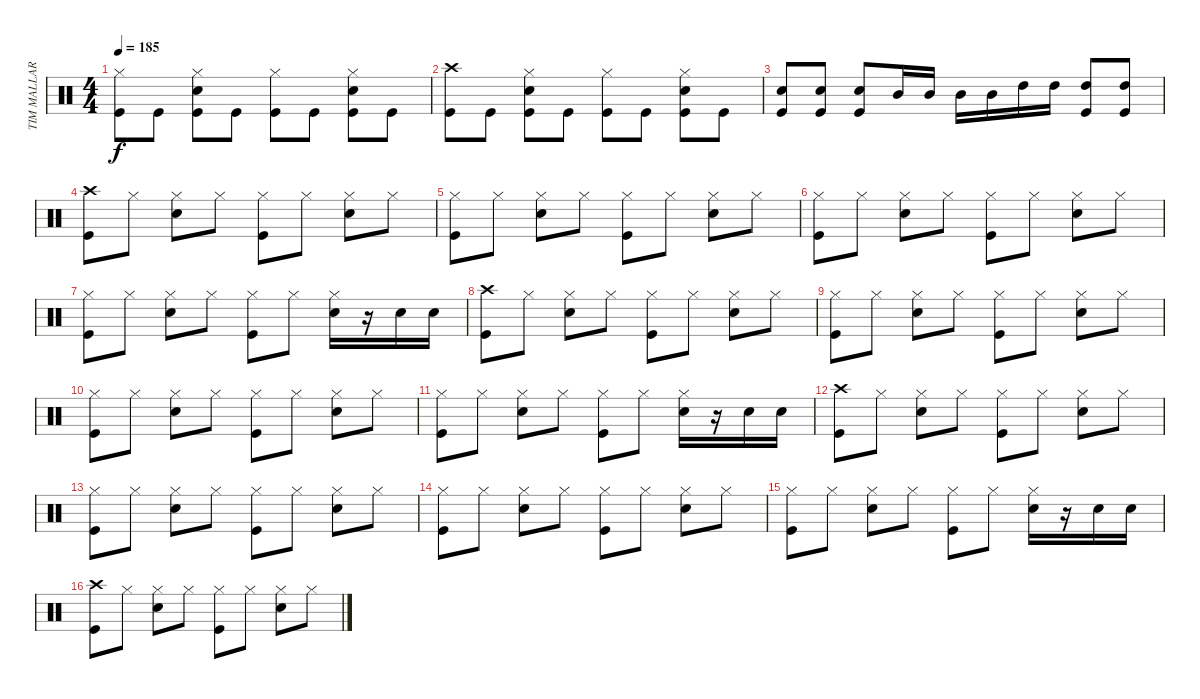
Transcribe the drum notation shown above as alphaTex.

\track ("TIM MALLARE - drums" "TIM MALLAR") {instrument percussion}
\staff {score}
\articulation defaults
\ts (4 4)
\tempo 185
\clef neutral
\ks c
("Hi-Hat (closed)" "Kick (hit)").8{dy f} "Kick (hit)".8 ("Hi-Hat (closed)" "Electric Snare (hit)" "Kick (hit)").8 "Kick (hit)".8 ("Hi-Hat (closed)" "Kick (hit)").8 "Kick (hit)".8 ("Hi-Hat (closed)" "Electric Snare (hit)" "Kick (hit)").8 "Kick (hit)".8 |
("Crash high (hit)" "Kick (hit)").8 "Kick (hit)".8 ("Hi-Hat (closed)" "Electric Snare (hit)" "Kick (hit)").8 "Kick (hit)".8 ("Hi-Hat (closed)" "Kick (hit)").8 "Kick (hit)".8 ("Hi-Hat (closed)" "Electric Snare (hit)" "Kick (hit)").8 "Kick (hit)".8 |
("Electric Snare (hit)" "Kick (hit)").8 ("Electric Snare (hit)" "Kick (hit)").8 ("Electric Snare (hit)" "Kick (hit)").8 "Mid Tom (hit)".16 "Mid Tom (hit)".16 "Mid Tom (hit)".16 "Mid Tom (hit)".16 "High Tom (hit)".16 "High Tom (hit)".16 ("High Tom (hit)" "Kick (hit)").8 ("High Tom (hit)" "Kick (hit)").8 |
("Crash high (hit)" "Kick (hit)").8 "Hi-Hat (closed)".8 ("Hi-Hat (closed)" "Electric Snare (hit)").8 "Hi-Hat (closed)".8 ("Hi-Hat (closed)" "Kick (hit)").8 "Hi-Hat (closed)".8 ("Hi-Hat (closed)" "Electric Snare (hit)").8 "Hi-Hat (closed)".8 |
("Hi-Hat (closed)" "Kick (hit)").8 "Hi-Hat (closed)".8 ("Hi-Hat (closed)" "Electric Snare (hit)").8 "Hi-Hat (closed)".8 ("Hi-Hat (closed)" "Kick (hit)").8 "Hi-Hat (closed)".8 ("Hi-Hat (closed)" "Electric Snare (hit)").8 "Hi-Hat (closed)".8 |
("Hi-Hat (closed)" "Kick (hit)").8 "Hi-Hat (closed)".8 ("Hi-Hat (closed)" "Electric Snare (hit)").8 "Hi-Hat (closed)".8 ("Hi-Hat (closed)" "Kick (hit)").8 "Hi-Hat (closed)".8 ("Hi-Hat (closed)" "Electric Snare (hit)").8 "Hi-Hat (closed)".8 |
("Hi-Hat (closed)" "Kick (hit)").8 "Hi-Hat (closed)".8 ("Hi-Hat (closed)" "Electric Snare (hit)").8 "Hi-Hat (closed)".8 ("Hi-Hat (closed)" "Kick (hit)").8 "Hi-Hat (closed)".8 ("Hi-Hat (closed)" "Electric Snare (hit)").16 r.16 "Electric Snare (hit)".16 "Electric Snare (hit)".16 |
("Crash high (hit)" "Kick (hit)").8 "Hi-Hat (closed)".8 ("Hi-Hat (closed)" "Electric Snare (hit)").8 "Hi-Hat (closed)".8 ("Hi-Hat (closed)" "Kick (hit)").8 "Hi-Hat (closed)".8 ("Hi-Hat (closed)" "Electric Snare (hit)").8 "Hi-Hat (closed)".8 |
("Hi-Hat (closed)" "Kick (hit)").8 "Hi-Hat (closed)".8 ("Hi-Hat (closed)" "Electric Snare (hit)").8 "Hi-Hat (closed)".8 ("Hi-Hat (closed)" "Kick (hit)").8 "Hi-Hat (closed)".8 ("Hi-Hat (closed)" "Electric Snare (hit)").8 "Hi-Hat (closed)".8 |
("Hi-Hat (closed)" "Kick (hit)").8 "Hi-Hat (closed)".8 ("Hi-Hat (closed)" "Electric Snare (hit)").8 "Hi-Hat (closed)".8 ("Hi-Hat (closed)" "Kick (hit)").8 "Hi-Hat (closed)".8 ("Hi-Hat (closed)" "Electric Snare (hit)").8 "Hi-Hat (closed)".8 |
("Hi-Hat (closed)" "Kick (hit)").8 "Hi-Hat (closed)".8 ("Hi-Hat (closed)" "Electric Snare (hit)").8 "Hi-Hat (closed)".8 ("Hi-Hat (closed)" "Kick (hit)").8 "Hi-Hat (closed)".8 ("Hi-Hat (closed)" "Electric Snare (hit)").16 r.16 "Electric Snare (hit)".16 "Electric Snare (hit)".16 |
("Crash high (hit)" "Kick (hit)").8 "Hi-Hat (closed)".8 ("Hi-Hat (closed)" "Electric Snare (hit)").8 "Hi-Hat (closed)".8 ("Hi-Hat (closed)" "Kick (hit)").8 "Hi-Hat (closed)".8 ("Hi-Hat (closed)" "Electric Snare (hit)").8 "Hi-Hat (closed)".8 |
("Hi-Hat (closed)" "Kick (hit)").8 "Hi-Hat (closed)".8 ("Hi-Hat (closed)" "Electric Snare (hit)").8 "Hi-Hat (closed)".8 ("Hi-Hat (closed)" "Kick (hit)").8 "Hi-Hat (closed)".8 ("Hi-Hat (closed)" "Electric Snare (hit)").8 "Hi-Hat (closed)".8 |
("Hi-Hat (closed)" "Kick (hit)").8 "Hi-Hat (closed)".8 ("Hi-Hat (closed)" "Electric Snare (hit)").8 "Hi-Hat (closed)".8 ("Hi-Hat (closed)" "Kick (hit)").8 "Hi-Hat (closed)".8 ("Hi-Hat (closed)" "Electric Snare (hit)").8 "Hi-Hat (closed)".8 |
("Hi-Hat (closed)" "Kick (hit)").8 "Hi-Hat (closed)".8 ("Hi-Hat (closed)" "Electric Snare (hit)").8 "Hi-Hat (closed)".8 ("Hi-Hat (closed)" "Kick (hit)").8 "Hi-Hat (closed)".8 ("Hi-Hat (closed)" "Electric Snare (hit)").16 r.16 "Electric Snare (hit)".16 "Electric Snare (hit)".16 |
("Crash high (hit)" "Kick (hit)").8 "Hi-Hat (closed)".8 ("Hi-Hat (closed)" "Electric Snare (hit)").8 "Hi-Hat (closed)".8 ("Hi-Hat (closed)" "Kick (hit)").8 "Hi-Hat (closed)".8 ("Hi-Hat (closed)" "Electric Snare (hit)").8 "Hi-Hat (closed)".8
